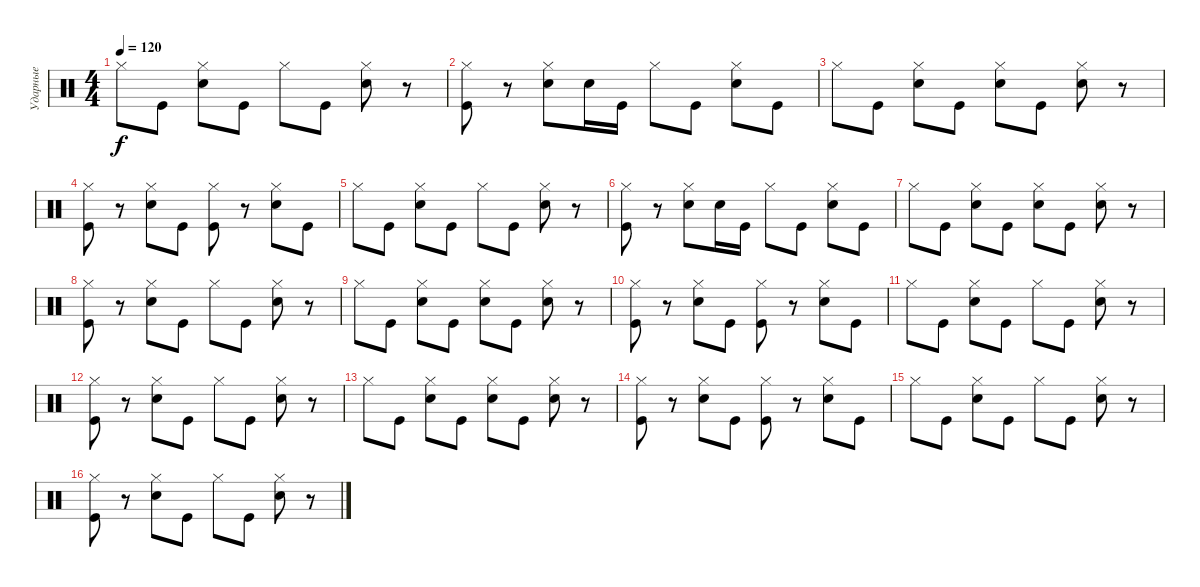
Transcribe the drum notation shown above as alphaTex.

\track ("Ударные" "Ударные") {instrument percussion}
\staff {score}
\articulation defaults
\ts (4 4)
\tempo 120
\clef neutral
\ks c "Hi-Hat (closed)".8{dy f} "Kick (hit)".8
("Hi-Hat (closed)" "Snare (hit) 2").8 "Kick (hit)".8 "Hi-Hat (closed)".8 "Kick (hit)".8 ("Hi-Hat (closed)" "Snare (hit) 2").8 r.8 |
("Hi-Hat (closed)" "Kick (hit)").8 r.8 ("Hi-Hat (closed)" "Snare (hit) 2").8 "Snare (hit) 2".16 "Kick (hit)".16 "Hi-Hat (closed)".8 "Kick (hit)".8 ("Hi-Hat (closed)" "Snare (hit) 2").8 "Kick (hit)".8 |
"Hi-Hat (closed)".8 "Kick (hit)".8 ("Hi-Hat (closed)" "Snare (hit) 2").8 "Kick (hit)".8 ("Hi-Hat (closed)" "Snare (hit) 2").8 "Kick (hit)".8 ("Hi-Hat (closed)" "Snare (hit) 2").8 r.8 |
("Hi-Hat (closed)" "Kick (hit)").8 r.8 ("Hi-Hat (closed)" "Snare (hit) 2").8 "Kick (hit)".8 ("Hi-Hat (closed)" "Kick (hit)").8 r.8 ("Hi-Hat (closed)" "Snare (hit) 2").8 "Kick (hit)".8 |
"Hi-Hat (closed)".8 "Kick (hit)".8 ("Hi-Hat (closed)" "Snare (hit) 2").8 "Kick (hit)".8 "Hi-Hat (closed)".8 "Kick (hit)".8 ("Hi-Hat (closed)" "Snare (hit) 2").8 r.8 |
("Hi-Hat (closed)" "Kick (hit)").8 r.8 ("Hi-Hat (closed)" "Snare (hit) 2").8 "Snare (hit) 2".16 "Kick (hit)".16 "Hi-Hat (closed)".8 "Kick (hit)".8 ("Hi-Hat (closed)" "Snare (hit) 2").8 "Kick (hit)".8 |
"Hi-Hat (closed)".8 "Kick (hit)".8 ("Hi-Hat (closed)" "Snare (hit) 2").8 "Kick (hit)".8 ("Hi-Hat (closed)" "Snare (hit) 2").8 "Kick (hit)".8 ("Hi-Hat (closed)" "Snare (hit) 2").8 r.8 |
("Hi-Hat (closed)" "Kick (hit)").8 r.8 ("Hi-Hat (closed)" "Snare (hit) 2").8 "Kick (hit)".8 "Hi-Hat (closed)".8 "Kick (hit)".8 ("Hi-Hat (closed)" "Snare (hit) 2").8 r.8 |
"Hi-Hat (closed)".8 "Kick (hit)".8 ("Hi-Hat (closed)" "Snare (hit) 2").8 "Kick (hit)".8 ("Hi-Hat (closed)" "Snare (hit) 2").8 "Kick (hit)".8 ("Hi-Hat (closed)" "Snare (hit) 2").8 r.8 |
("Hi-Hat (closed)" "Kick (hit)").8 r.8 ("Hi-Hat (closed)" "Snare (hit) 2").8 "Kick (hit)".8 ("Hi-Hat (closed)" "Kick (hit)").8 r.8 ("Hi-Hat (closed)" "Snare (hit) 2").8 "Kick (hit)".8 |
"Hi-Hat (closed)".8 "Kick (hit)".8 ("Hi-Hat (closed)" "Snare (hit) 2").8 "Kick (hit)".8 "Hi-Hat (closed)".8 "Kick (hit)".8 ("Hi-Hat (closed)" "Snare (hit) 2").8 r.8 |
("Hi-Hat (closed)" "Kick (hit)").8 r.8 ("Hi-Hat (closed)" "Snare (hit) 2").8 "Kick (hit)".8 "Hi-Hat (closed)".8 "Kick (hit)".8 ("Hi-Hat (closed)" "Snare (hit) 2").8 r.8 |
"Hi-Hat (closed)".8 "Kick (hit)".8 ("Hi-Hat (closed)" "Snare (hit) 2").8 "Kick (hit)".8 ("Hi-Hat (closed)" "Snare (hit) 2").8 "Kick (hit)".8 ("Hi-Hat (closed)" "Snare (hit) 2").8 r.8 |
("Hi-Hat (closed)" "Kick (hit)").8 r.8 ("Hi-Hat (closed)" "Snare (hit) 2").8 "Kick (hit)".8 ("Hi-Hat (closed)" "Kick (hit)").8 r.8 ("Hi-Hat (closed)" "Snare (hit) 2").8 "Kick (hit)".8 |
"Hi-Hat (closed)".8 "Kick (hit)".8 ("Hi-Hat (closed)" "Snare (hit) 2").8 "Kick (hit)".8 "Hi-Hat (closed)".8 "Kick (hit)".8 ("Hi-Hat (closed)" "Snare (hit) 2").8 r.8 |
("Hi-Hat (closed)" "Kick (hit)").8 r.8 ("Hi-Hat (closed)" "Snare (hit) 2").8 "Kick (hit)".8 "Hi-Hat (closed)".8 "Kick (hit)".8 ("Hi-Hat (closed)" "Snare (hit) 2").8 r.8
